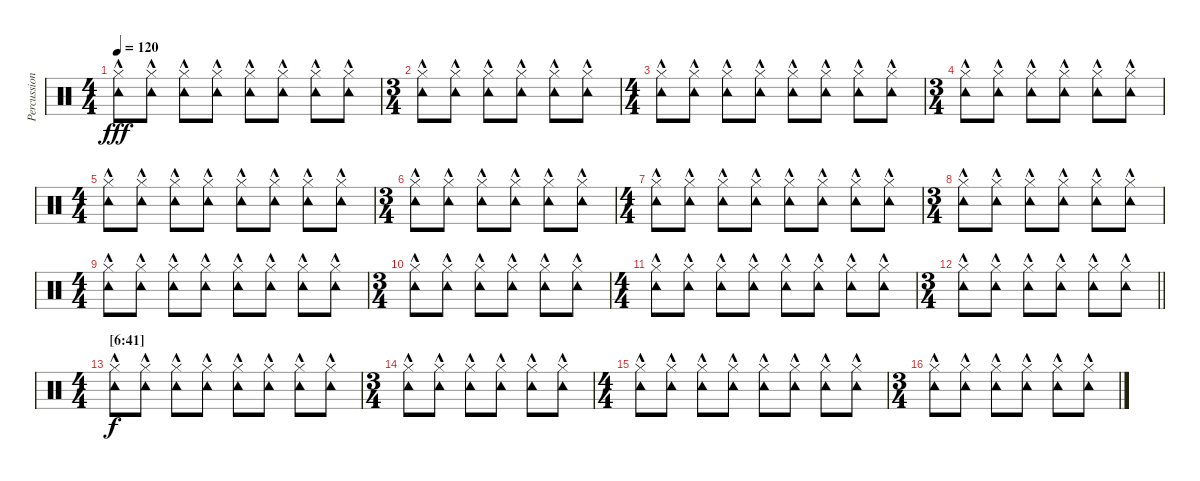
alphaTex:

\track ("Percussion" "Percussion") {instrument percussion}
\staff {score}
\articulation defaults
\ts (4 4)
\tempo 120
\clef neutral
\ks c
("Tambourine (hit)"{hac} "Hi-Hat (closed)").8{dy fff} ("Tambourine (hit)"{hac} "Hi-Hat (closed)").8 ("Tambourine (hit)"{hac} "Hi-Hat (closed)").8 ("Tambourine (hit)"{hac} "Hi-Hat (closed)").8 ("Tambourine (hit)"{hac} "Hi-Hat (closed)").8 ("Tambourine (hit)"{hac} "Hi-Hat (closed)").8 ("Tambourine (hit)"{hac} "Hi-Hat (closed)").8 ("Tambourine (hit)"{hac} "Hi-Hat (closed)").8 |
\ts (3 4)
("Tambourine (hit)"{hac} "Hi-Hat (closed)").8 ("Tambourine (hit)"{hac} "Hi-Hat (closed)").8 ("Tambourine (hit)"{hac} "Hi-Hat (closed)").8 ("Tambourine (hit)"{hac} "Hi-Hat (closed)").8 ("Tambourine (hit)"{hac} "Hi-Hat (closed)").8 ("Tambourine (hit)"{hac} "Hi-Hat (closed)").8 |
\ts (4 4)
("Tambourine (hit)"{hac} "Hi-Hat (closed)").8 ("Tambourine (hit)"{hac} "Hi-Hat (closed)").8 ("Tambourine (hit)"{hac} "Hi-Hat (closed)").8 ("Tambourine (hit)"{hac} "Hi-Hat (closed)").8 ("Tambourine (hit)"{hac} "Hi-Hat (closed)").8 ("Tambourine (hit)"{hac} "Hi-Hat (closed)").8 ("Tambourine (hit)"{hac} "Hi-Hat (closed)").8 ("Tambourine (hit)"{hac} "Hi-Hat (closed)").8 |
\ts (3 4)
("Tambourine (hit)"{hac} "Hi-Hat (closed)").8 ("Tambourine (hit)"{hac} "Hi-Hat (closed)").8 ("Tambourine (hit)"{hac} "Hi-Hat (closed)").8 ("Tambourine (hit)"{hac} "Hi-Hat (closed)").8 ("Tambourine (hit)"{hac} "Hi-Hat (closed)").8 ("Tambourine (hit)"{hac} "Hi-Hat (closed)").8 |
\ts (4 4)
("Tambourine (hit)"{hac} "Hi-Hat (closed)").8 ("Tambourine (hit)"{hac} "Hi-Hat (closed)").8 ("Tambourine (hit)"{hac} "Hi-Hat (closed)").8 ("Tambourine (hit)"{hac} "Hi-Hat (closed)").8 ("Tambourine (hit)"{hac} "Hi-Hat (closed)").8 ("Tambourine (hit)"{hac} "Hi-Hat (closed)").8 ("Tambourine (hit)"{hac} "Hi-Hat (closed)").8 ("Tambourine (hit)"{hac} "Hi-Hat (closed)").8 |
\ts (3 4)
("Tambourine (hit)"{hac} "Hi-Hat (closed)").8 ("Tambourine (hit)"{hac} "Hi-Hat (closed)").8 ("Tambourine (hit)"{hac} "Hi-Hat (closed)").8 ("Tambourine (hit)"{hac} "Hi-Hat (closed)").8 ("Tambourine (hit)"{hac} "Hi-Hat (closed)").8 ("Tambourine (hit)"{hac} "Hi-Hat (closed)").8 |
\ts (4 4)
("Tambourine (hit)"{hac} "Hi-Hat (closed)").8 ("Tambourine (hit)"{hac} "Hi-Hat (closed)").8 ("Tambourine (hit)"{hac} "Hi-Hat (closed)").8 ("Tambourine (hit)"{hac} "Hi-Hat (closed)").8 ("Tambourine (hit)"{hac} "Hi-Hat (closed)").8 ("Tambourine (hit)"{hac} "Hi-Hat (closed)").8 ("Tambourine (hit)"{hac} "Hi-Hat (closed)").8 ("Tambourine (hit)"{hac} "Hi-Hat (closed)").8 |
\ts (3 4)
("Tambourine (hit)"{hac} "Hi-Hat (closed)").8 ("Tambourine (hit)"{hac} "Hi-Hat (closed)").8 ("Tambourine (hit)"{hac} "Hi-Hat (closed)").8 ("Tambourine (hit)"{hac} "Hi-Hat (closed)").8 ("Tambourine (hit)"{hac} "Hi-Hat (closed)").8 ("Tambourine (hit)"{hac} "Hi-Hat (closed)").8 |
\ts (4 4)
("Tambourine (hit)"{hac} "Hi-Hat (closed)").8 ("Tambourine (hit)"{hac} "Hi-Hat (closed)").8 ("Tambourine (hit)"{hac} "Hi-Hat (closed)").8 ("Tambourine (hit)"{hac} "Hi-Hat (closed)").8 ("Tambourine (hit)"{hac} "Hi-Hat (closed)").8 ("Tambourine (hit)"{hac} "Hi-Hat (closed)").8 ("Tambourine (hit)"{hac} "Hi-Hat (closed)").8 ("Tambourine (hit)"{hac} "Hi-Hat (closed)").8 |
\ts (3 4)
("Tambourine (hit)"{hac} "Hi-Hat (closed)").8 ("Tambourine (hit)"{hac} "Hi-Hat (closed)").8 ("Tambourine (hit)"{hac} "Hi-Hat (closed)").8 ("Tambourine (hit)"{hac} "Hi-Hat (closed)").8 ("Tambourine (hit)"{hac} "Hi-Hat (closed)").8 ("Tambourine (hit)"{hac} "Hi-Hat (closed)").8 |
\ts (4 4)
("Tambourine (hit)"{hac} "Hi-Hat (closed)").8 ("Tambourine (hit)"{hac} "Hi-Hat (closed)").8 ("Tambourine (hit)"{hac} "Hi-Hat (closed)").8 ("Tambourine (hit)"{hac} "Hi-Hat (closed)").8 ("Tambourine (hit)"{hac} "Hi-Hat (closed)").8 ("Tambourine (hit)"{hac} "Hi-Hat (closed)").8 ("Tambourine (hit)"{hac} "Hi-Hat (closed)").8 ("Tambourine (hit)"{hac} "Hi-Hat (closed)").8 |
\ts (3 4)
\barLineRight lightlight
("Tambourine (hit)"{hac} "Hi-Hat (closed)").8 ("Tambourine (hit)"{hac} "Hi-Hat (closed)").8 ("Tambourine (hit)"{hac} "Hi-Hat (closed)").8 ("Tambourine (hit)"{hac} "Hi-Hat (closed)").8 ("Tambourine (hit)"{hac} "Hi-Hat (closed)").8 ("Tambourine (hit)"{hac} "Hi-Hat (closed)").8 |
\ts (4 4)
\section ("" "[6:41]")
("Tambourine (hit)"{hac} "Hi-Hat (closed)").8{dy f} ("Tambourine (hit)"{hac} "Hi-Hat (closed)").8 ("Tambourine (hit)"{hac} "Hi-Hat (closed)").8 ("Tambourine (hit)"{hac} "Hi-Hat (closed)").8 ("Tambourine (hit)"{hac} "Hi-Hat (closed)").8 ("Tambourine (hit)"{hac} "Hi-Hat (closed)").8 ("Tambourine (hit)"{hac} "Hi-Hat (closed)").8 ("Tambourine (hit)"{hac} "Hi-Hat (closed)").8 |
\ts (3 4)
("Tambourine (hit)"{hac} "Hi-Hat (closed)").8 ("Tambourine (hit)"{hac} "Hi-Hat (closed)").8 ("Tambourine (hit)"{hac} "Hi-Hat (closed)").8 ("Tambourine (hit)"{hac} "Hi-Hat (closed)").8 ("Tambourine (hit)"{hac} "Hi-Hat (closed)").8 ("Tambourine (hit)"{hac} "Hi-Hat (closed)").8 |
\ts (4 4)
("Tambourine (hit)"{hac} "Hi-Hat (closed)").8 ("Tambourine (hit)"{hac} "Hi-Hat (closed)").8 ("Tambourine (hit)"{hac} "Hi-Hat (closed)").8 ("Tambourine (hit)"{hac} "Hi-Hat (closed)").8 ("Tambourine (hit)"{hac} "Hi-Hat (closed)").8 ("Tambourine (hit)"{hac} "Hi-Hat (closed)").8 ("Tambourine (hit)"{hac} "Hi-Hat (closed)").8 ("Tambourine (hit)"{hac} "Hi-Hat (closed)").8 |
\ts (3 4)
("Tambourine (hit)"{hac} "Hi-Hat (closed)").8 ("Tambourine (hit)"{hac} "Hi-Hat (closed)").8 ("Tambourine (hit)"{hac} "Hi-Hat (closed)").8 ("Tambourine (hit)"{hac} "Hi-Hat (closed)").8 ("Tambourine (hit)"{hac} "Hi-Hat (closed)").8 ("Tambourine (hit)"{hac} "Hi-Hat (closed)").8
